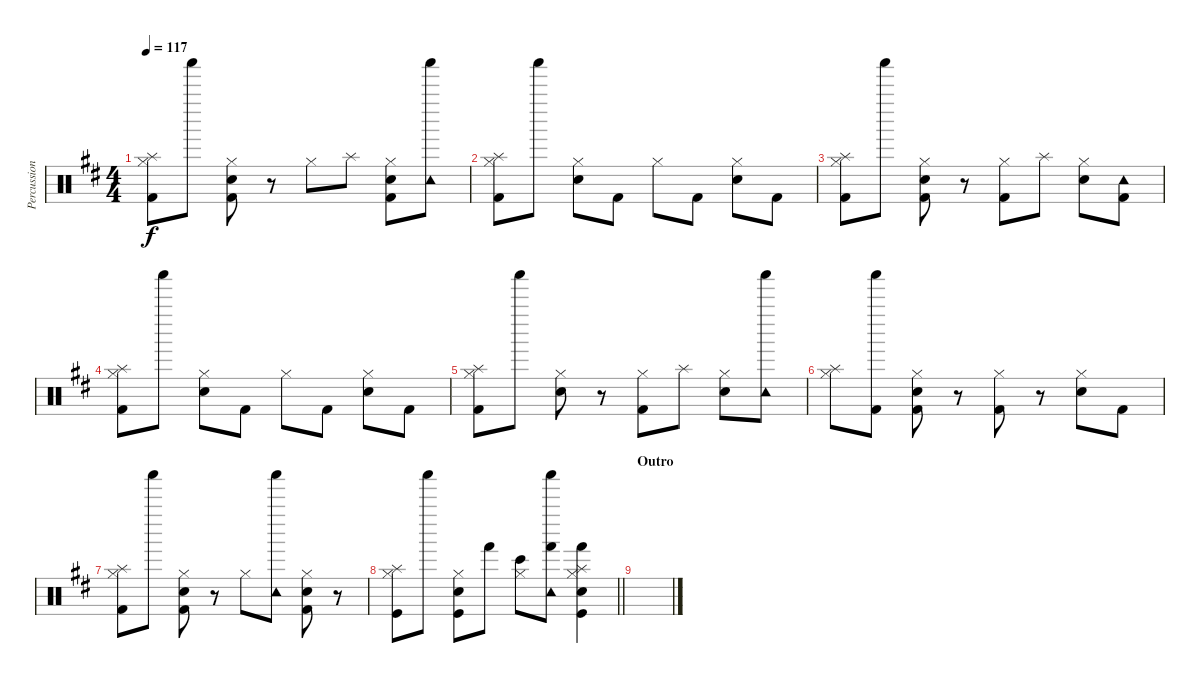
\track ("Percussion" "Percussion") {instrument percussion}
\staff {score}
\articulation defaults
\ts (4 4)
\tempo 117
\clef neutral
\ks d
("Hi-Hat (closed)" "Splash (hit)" "Kick (hit) 2").8{dy f} "Shaker (hit)".8 ("Hi-Hat (closed)" "Snare (hit) 2" "Kick (hit) 2").8 r.8 "Hi-Hat (closed)".8 "Splash (hit)".8 ("Hi-Hat (closed)" "Snare (hit) 2" "Kick (hit) 2").8 ("Shaker (hit)" "Tambourine (hit)").8 |
("Hi-Hat (closed)" "Splash (hit)" "Kick (hit) 2").8 "Shaker (hit)".8 ("Hi-Hat (closed)" "Snare (hit) 2").8 "Kick (hit) 2".8 "Hi-Hat (closed)".8 "Kick (hit) 2".8 ("Hi-Hat (closed)" "Snare (hit) 2").8 "Kick (hit) 2".8 |
("Hi-Hat (closed)" "Splash (hit)" "Kick (hit) 2").8 "Shaker (hit)".8 ("Hi-Hat (closed)" "Snare (hit) 2" "Kick (hit) 2").8 r.8 ("Hi-Hat (closed)" "Kick (hit) 2").8 "Splash (hit)".8 ("Hi-Hat (closed)" "Snare (hit) 2").8 ("Tambourine (hit)" "Kick (hit) 2").8 |
("Hi-Hat (closed)" "Splash (hit)" "Kick (hit) 2").8 "Shaker (hit)".8 ("Hi-Hat (closed)" "Snare (hit) 2").8 "Kick (hit) 2".8 "Hi-Hat (closed)".8 "Kick (hit) 2".8 ("Hi-Hat (closed)" "Snare (hit) 2").8 "Kick (hit) 2".8 |
("Hi-Hat (closed)" "Splash (hit)" "Kick (hit) 2").8 "Shaker (hit)".8 ("Hi-Hat (closed)" "Snare (hit) 2").8 r.8 ("Hi-Hat (closed)" "Kick (hit) 2").8 "Splash (hit)".8 ("Hi-Hat (closed)" "Snare (hit) 2").8 ("Shaker (hit)" "Tambourine (hit)").8 |
("Hi-Hat (closed)" "Splash (hit)").8 ("Shaker (hit)" "Kick (hit) 2").8 ("Hi-Hat (closed)" "Snare (hit) 2" "Kick (hit) 2").8 r.8 ("Hi-Hat (closed)" "Kick (hit) 2").8 r.8 ("Hi-Hat (closed)" "Snare (hit) 2").8 "Kick (hit) 2".8 |
("Hi-Hat (closed)" "Splash (hit)" "Kick (hit) 2").8 "Shaker (hit)".8 ("Hi-Hat (closed)" "Snare (hit) 2" "Kick (hit) 2").8 r.8 "Hi-Hat (closed)".8 ("Shaker (hit)" "Tambourine (hit)").8 ("Hi-Hat (closed)" "Snare (hit) 2" "Kick (hit) 2").8 r.8 |
\barLineRight lightlight
("Hi-Hat (closed)" "Splash (hit)" "Kick (hit)").8 "Shaker (hit)".8 ("Hi-Hat (closed)" "Snare (hit) 2" "Kick (hit)").8 "Hand (hit)".8 ("Hi-Hat (closed)" "Bongo High (hit)").8 ("Shaker (hit)" "Hand (hit)" "Tambourine (hit)").8 ("Hi-Hat (closed)" "Splash (hit)" "Hand (hit)" "Snare (hit) 2" "Kick (hit)").4 |
\section ("" "Outro")
